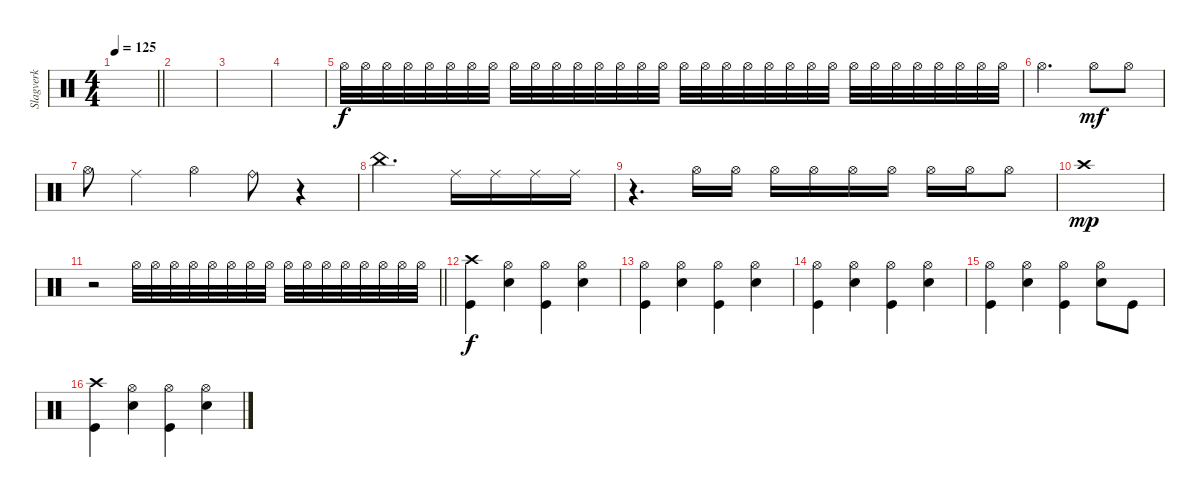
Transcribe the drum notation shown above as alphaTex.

\track ("Slagverk" "Slagverk") {instrument percussion}
\staff {score}
\articulation defaults
\ts (4 4)
\tempo 125
\clef neutral
\barLineRight lightlight
\ks c
|
|
|
|
"Hi-Hat (open)".32{volume 2} "Hi-Hat (open)".32{volume 8} "Hi-Hat (open)".32 "Hi-Hat (open)".32 "Hi-Hat (open)".32 "Hi-Hat (open)".32 "Hi-Hat (open)".32 "Hi-Hat (open)".32 "Hi-Hat (open)".32 "Hi-Hat (open)".32 "Hi-Hat (open)".32 "Hi-Hat (open)".32 "Hi-Hat (open)".32 "Hi-Hat (open)".32 "Hi-Hat (open)".32 "Hi-Hat (open)".32 "Hi-Hat (open)".32 "Hi-Hat (open)".32 "Hi-Hat (open)".32 "Hi-Hat (open)".32 "Hi-Hat (open)".32 "Hi-Hat (open)".32 "Hi-Hat (open)".32 "Hi-Hat (open)".32 "Hi-Hat (open)".32 "Hi-Hat (open)".32 "Hi-Hat (open)".32 "Hi-Hat (open)".32 "Hi-Hat (open)".32 "Hi-Hat (open)".32 "Hi-Hat (open)".32 "Hi-Hat (open)".32 |
"Hi-Hat (open)".2{d} "Hi-Hat (open)".8{dy mf volume 8} "Hi-Hat (open)".8 |
"Hi-Hat (open)".8 "Ride (middle)".4 "Hi-Hat (open)".4 "Ride (bell)".8 r.4 |
"China (hit)".2{d} "Ride (middle)".16 "Ride (middle)".16 "Ride (middle)".16 "Ride (middle)".16 |
r.4{d} "Hi-Hat (open)".16 "Hi-Hat (open)".16 "Hi-Hat (open)".16 "Hi-Hat (open)".16 "Hi-Hat (open)".16 "Hi-Hat (open)".16 "Hi-Hat (open)".16 "Hi-Hat (open)".16 "Hi-Hat (open)".8 |
"Crash high (hit)".1{dy mp} |
\barLineRight lightlight
r.2 "Hi-Hat (open)".32{volume 3} "Hi-Hat (open)".32{volume 13} "Hi-Hat (open)".32 "Hi-Hat (open)".32 "Hi-Hat (open)".32 "Hi-Hat (open)".32 "Hi-Hat (open)".32 "Hi-Hat (open)".32 "Hi-Hat (open)".32 "Hi-Hat (open)".32 "Hi-Hat (open)".32 "Hi-Hat (open)".32 "Hi-Hat (open)".32 "Hi-Hat (open)".32 "Hi-Hat (open)".32 "Hi-Hat (open)".32 |
("Crash high (hit)" "Kick (hit)").4{dy f volume 13} ("Hi-Hat (open)" "Snare (hit) 2").4 ("Hi-Hat (open)" "Kick (hit)").4 ("Hi-Hat (open)" "Snare (hit) 2").4 |
("Hi-Hat (open)" "Kick (hit)").4 ("Hi-Hat (open)" "Snare (hit) 2").4 ("Hi-Hat (open)" "Kick (hit)").4 ("Hi-Hat (open)" "Snare (hit) 2").4 |
("Hi-Hat (open)" "Kick (hit)").4 ("Hi-Hat (open)" "Snare (hit) 2").4 ("Hi-Hat (open)" "Kick (hit)").4 ("Hi-Hat (open)" "Snare (hit) 2").4 |
("Hi-Hat (open)" "Kick (hit)").4 ("Hi-Hat (open)" "Snare (hit) 2").4 ("Hi-Hat (open)" "Kick (hit)").4 ("Hi-Hat (open)" "Snare (hit) 2").8 "Kick (hit)".8 |
("Crash high (hit)" "Kick (hit)").4 ("Hi-Hat (open)" "Snare (hit) 2").4 ("Hi-Hat (open)" "Kick (hit)").4 ("Hi-Hat (open)" "Snare (hit) 2").4
